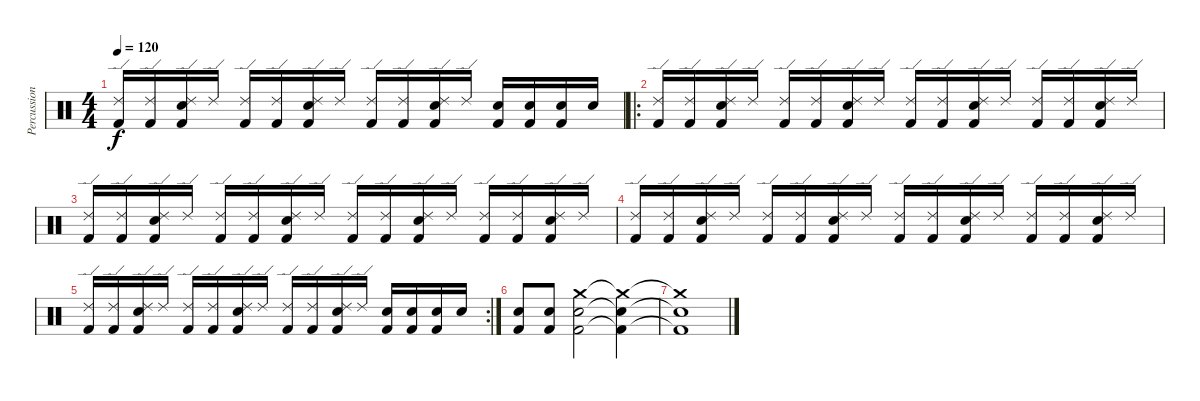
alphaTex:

\track ("Percussion" "Percussion") {instrument percussion}
\staff {score}
\articulation defaults
\ts (4 4)
\tempo 120
\clef neutral
\ks c
("Kick (hit) 2" "Ride (edge) 2").16{dy f} ("Kick (hit) 2" "Ride (edge) 2").16 ("Kick (hit) 2" "Snare (hit) 2" "Ride (edge) 2").16 "Ride (edge) 2".16 ("Kick (hit) 2" "Ride (edge) 2").16 ("Kick (hit) 2" "Ride (edge) 2").16 ("Kick (hit) 2" "Snare (hit) 2" "Ride (edge) 2").16 "Ride (edge) 2".16 ("Kick (hit) 2" "Ride (edge) 2").16 ("Kick (hit) 2" "Ride (edge) 2").16 ("Kick (hit) 2" "Snare (hit) 2" "Ride (edge) 2").16 "Ride (edge) 2".16 ("Kick (hit) 2" "Snare (hit) 2").16 ("Kick (hit) 2" "Snare (hit) 2").16 ("Kick (hit) 2" "Snare (hit) 2").16 "Snare (hit) 2".16 |
\ro
("Kick (hit) 2" "Ride (edge) 2").16 ("Kick (hit) 2" "Ride (edge) 2").16 ("Kick (hit) 2" "Snare (hit) 2" "Ride (edge) 2").16 "Ride (edge) 2".16 ("Kick (hit) 2" "Ride (edge) 2").16 ("Kick (hit) 2" "Ride (edge) 2").16 ("Kick (hit) 2" "Snare (hit) 2" "Ride (edge) 2").16 "Ride (edge) 2".16 ("Kick (hit) 2" "Ride (edge) 2").16 ("Kick (hit) 2" "Ride (edge) 2").16 ("Kick (hit) 2" "Snare (hit) 2" "Ride (edge) 2").16 "Ride (edge) 2".16 ("Kick (hit) 2" "Ride (edge) 2").16 ("Kick (hit) 2" "Ride (edge) 2").16 ("Kick (hit) 2" "Snare (hit) 2" "Ride (edge) 2").16 "Ride (edge) 2".16 |
("Kick (hit) 2" "Ride (edge) 2").16 ("Kick (hit) 2" "Ride (edge) 2").16 ("Kick (hit) 2" "Snare (hit) 2" "Ride (edge) 2").16 "Ride (edge) 2".16 ("Kick (hit) 2" "Ride (edge) 2").16 ("Kick (hit) 2" "Ride (edge) 2").16 ("Kick (hit) 2" "Snare (hit) 2" "Ride (edge) 2").16 "Ride (edge) 2".16 ("Kick (hit) 2" "Ride (edge) 2").16 ("Kick (hit) 2" "Ride (edge) 2").16 ("Kick (hit) 2" "Snare (hit) 2" "Ride (edge) 2").16 "Ride (edge) 2".16 ("Kick (hit) 2" "Ride (edge) 2").16 ("Kick (hit) 2" "Ride (edge) 2").16 ("Kick (hit) 2" "Snare (hit) 2" "Ride (edge) 2").16 "Ride (edge) 2".16 |
("Kick (hit) 2" "Ride (edge) 2").16 ("Kick (hit) 2" "Ride (edge) 2").16 ("Kick (hit) 2" "Snare (hit) 2" "Ride (edge) 2").16 "Ride (edge) 2".16 ("Kick (hit) 2" "Ride (edge) 2").16 ("Kick (hit) 2" "Ride (edge) 2").16 ("Kick (hit) 2" "Snare (hit) 2" "Ride (edge) 2").16 "Ride (edge) 2".16 ("Kick (hit) 2" "Ride (edge) 2").16 ("Kick (hit) 2" "Ride (edge) 2").16 ("Kick (hit) 2" "Snare (hit) 2" "Ride (edge) 2").16 "Ride (edge) 2".16 ("Kick (hit) 2" "Ride (edge) 2").16 ("Kick (hit) 2" "Ride (edge) 2").16 ("Kick (hit) 2" "Snare (hit) 2" "Ride (edge) 2").16 "Ride (edge) 2".16 |
\rc 2
("Kick (hit) 2" "Ride (edge) 2").16 ("Kick (hit) 2" "Ride (edge) 2").16 ("Kick (hit) 2" "Snare (hit) 2" "Ride (edge) 2").16 "Ride (edge) 2".16 ("Kick (hit) 2" "Ride (edge) 2").16 ("Kick (hit) 2" "Ride (edge) 2").16 ("Kick (hit) 2" "Snare (hit) 2" "Ride (edge) 2").16 "Ride (edge) 2".16 ("Kick (hit) 2" "Ride (edge) 2").16 ("Kick (hit) 2" "Ride (edge) 2").16 ("Kick (hit) 2" "Snare (hit) 2" "Ride (edge) 2").16 "Ride (edge) 2".16 ("Kick (hit) 2" "Snare (hit) 2").16 ("Kick (hit) 2" "Snare (hit) 2").16 ("Kick (hit) 2" "Snare (hit) 2").16 "Snare (hit) 2".16 |
("Kick (hit) 2" "Snare (hit) 2").8 ("Kick (hit) 2" "Snare (hit) 2").8 ("Kick (hit) 2" "Snare (hit) 2" "Crash medium (hit)").2 ("Kick (hit) 2"{t} "Snare (hit) 2"{t} "Crash medium (hit)"{t}).4 |
("Kick (hit) 2"{t} "Snare (hit) 2"{t} "Crash medium (hit)"{t}).1
